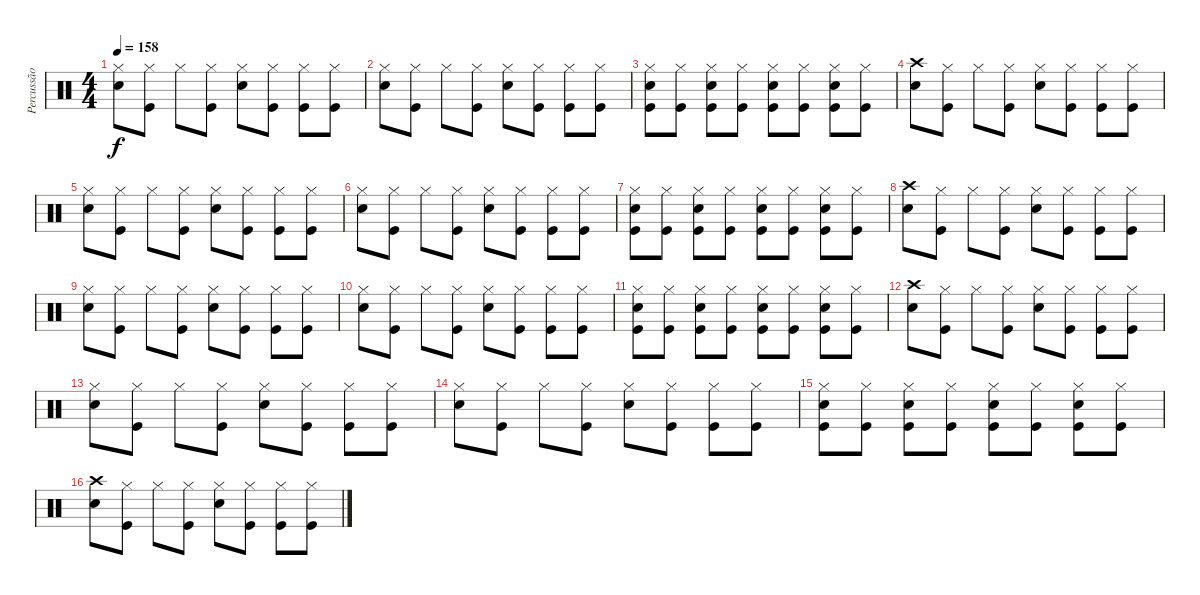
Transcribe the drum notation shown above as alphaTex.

\track ("Percussão" "Percussão") {instrument percussion}
\staff {score}
\articulation defaults
\ts (4 4)
\tempo 158
\clef neutral
\ks c
("Hi-Hat (closed)" "Electric Snare (hit)").8{dy f} ("Hi-Hat (closed)" "Kick (hit)").8 "Hi-Hat (closed)".8 ("Hi-Hat (closed)" "Kick (hit)").8 ("Hi-Hat (closed)" "Electric Snare (hit)").8 ("Hi-Hat (closed)" "Kick (hit)").8 ("Hi-Hat (closed)" "Kick (hit)").8 ("Hi-Hat (closed)" "Kick (hit)").8 |
("Hi-Hat (closed)" "Electric Snare (hit)").8 ("Hi-Hat (closed)" "Kick (hit)").8 "Hi-Hat (closed)".8 ("Hi-Hat (closed)" "Kick (hit)").8 ("Hi-Hat (closed)" "Electric Snare (hit)").8 ("Hi-Hat (closed)" "Kick (hit)").8 ("Hi-Hat (closed)" "Kick (hit)").8 ("Hi-Hat (closed)" "Kick (hit)").8 |
("Hi-Hat (closed)" "Electric Snare (hit)" "Kick (hit)").8 ("Hi-Hat (closed)" "Kick (hit)").8 ("Hi-Hat (closed)" "Electric Snare (hit)" "Kick (hit)").8 ("Hi-Hat (closed)" "Kick (hit)").8 ("Hi-Hat (closed)" "Electric Snare (hit)" "Kick (hit)").8 ("Hi-Hat (closed)" "Kick (hit)").8 ("Hi-Hat (closed)" "Electric Snare (hit)" "Kick (hit)").8 ("Hi-Hat (closed)" "Kick (hit)").8 |
("Crash high (hit)" "Electric Snare (hit)").8 ("Hi-Hat (closed)" "Kick (hit)").8 "Hi-Hat (closed)".8 ("Hi-Hat (closed)" "Kick (hit)").8 ("Hi-Hat (closed)" "Electric Snare (hit)").8 ("Hi-Hat (closed)" "Kick (hit)").8 ("Hi-Hat (closed)" "Kick (hit)").8 ("Hi-Hat (closed)" "Kick (hit)").8 |
("Hi-Hat (closed)" "Electric Snare (hit)").8 ("Hi-Hat (closed)" "Kick (hit)").8 "Hi-Hat (closed)".8 ("Hi-Hat (closed)" "Kick (hit)").8 ("Hi-Hat (closed)" "Electric Snare (hit)").8 ("Hi-Hat (closed)" "Kick (hit)").8 ("Hi-Hat (closed)" "Kick (hit)").8 ("Hi-Hat (closed)" "Kick (hit)").8 |
("Hi-Hat (closed)" "Electric Snare (hit)").8 ("Hi-Hat (closed)" "Kick (hit)").8 "Hi-Hat (closed)".8 ("Hi-Hat (closed)" "Kick (hit)").8 ("Hi-Hat (closed)" "Electric Snare (hit)").8 ("Hi-Hat (closed)" "Kick (hit)").8 ("Hi-Hat (closed)" "Kick (hit)").8 ("Hi-Hat (closed)" "Kick (hit)").8 |
("Hi-Hat (closed)" "Electric Snare (hit)" "Kick (hit)").8 ("Hi-Hat (closed)" "Kick (hit)").8 ("Hi-Hat (closed)" "Electric Snare (hit)" "Kick (hit)").8 ("Hi-Hat (closed)" "Kick (hit)").8 ("Hi-Hat (closed)" "Electric Snare (hit)" "Kick (hit)").8 ("Hi-Hat (closed)" "Kick (hit)").8 ("Hi-Hat (closed)" "Electric Snare (hit)" "Kick (hit)").8 ("Hi-Hat (closed)" "Kick (hit)").8 |
("Crash high (hit)" "Electric Snare (hit)").8 ("Hi-Hat (closed)" "Kick (hit)").8 "Hi-Hat (closed)".8 ("Hi-Hat (closed)" "Kick (hit)").8 ("Hi-Hat (closed)" "Electric Snare (hit)").8 ("Hi-Hat (closed)" "Kick (hit)").8 ("Hi-Hat (closed)" "Kick (hit)").8 ("Hi-Hat (closed)" "Kick (hit)").8 |
("Hi-Hat (closed)" "Electric Snare (hit)").8 ("Hi-Hat (closed)" "Kick (hit)").8 "Hi-Hat (closed)".8 ("Hi-Hat (closed)" "Kick (hit)").8 ("Hi-Hat (closed)" "Electric Snare (hit)").8 ("Hi-Hat (closed)" "Kick (hit)").8 ("Hi-Hat (closed)" "Kick (hit)").8 ("Hi-Hat (closed)" "Kick (hit)").8 |
("Hi-Hat (closed)" "Electric Snare (hit)").8 ("Hi-Hat (closed)" "Kick (hit)").8 "Hi-Hat (closed)".8 ("Hi-Hat (closed)" "Kick (hit)").8 ("Hi-Hat (closed)" "Electric Snare (hit)").8 ("Hi-Hat (closed)" "Kick (hit)").8 ("Hi-Hat (closed)" "Kick (hit)").8 ("Hi-Hat (closed)" "Kick (hit)").8 |
("Hi-Hat (closed)" "Electric Snare (hit)" "Kick (hit)").8 ("Hi-Hat (closed)" "Kick (hit)").8 ("Hi-Hat (closed)" "Electric Snare (hit)" "Kick (hit)").8 ("Hi-Hat (closed)" "Kick (hit)").8 ("Hi-Hat (closed)" "Electric Snare (hit)" "Kick (hit)").8 ("Hi-Hat (closed)" "Kick (hit)").8 ("Hi-Hat (closed)" "Electric Snare (hit)" "Kick (hit)").8 ("Hi-Hat (closed)" "Kick (hit)").8 |
("Crash high (hit)" "Electric Snare (hit)").8 ("Hi-Hat (closed)" "Kick (hit)").8 "Hi-Hat (closed)".8 ("Hi-Hat (closed)" "Kick (hit)").8 ("Hi-Hat (closed)" "Electric Snare (hit)").8 ("Hi-Hat (closed)" "Kick (hit)").8 ("Hi-Hat (closed)" "Kick (hit)").8 ("Hi-Hat (closed)" "Kick (hit)").8 |
("Hi-Hat (closed)" "Electric Snare (hit)").8 ("Hi-Hat (closed)" "Kick (hit)").8 "Hi-Hat (closed)".8 ("Hi-Hat (closed)" "Kick (hit)").8 ("Hi-Hat (closed)" "Electric Snare (hit)").8 ("Hi-Hat (closed)" "Kick (hit)").8 ("Hi-Hat (closed)" "Kick (hit)").8 ("Hi-Hat (closed)" "Kick (hit)").8 |
("Hi-Hat (closed)" "Electric Snare (hit)").8 ("Hi-Hat (closed)" "Kick (hit)").8 "Hi-Hat (closed)".8 ("Hi-Hat (closed)" "Kick (hit)").8 ("Hi-Hat (closed)" "Electric Snare (hit)").8 ("Hi-Hat (closed)" "Kick (hit)").8 ("Hi-Hat (closed)" "Kick (hit)").8 ("Hi-Hat (closed)" "Kick (hit)").8 |
("Hi-Hat (closed)" "Electric Snare (hit)" "Kick (hit)").8 ("Hi-Hat (closed)" "Kick (hit)").8 ("Hi-Hat (closed)" "Electric Snare (hit)" "Kick (hit)").8 ("Hi-Hat (closed)" "Kick (hit)").8 ("Hi-Hat (closed)" "Electric Snare (hit)" "Kick (hit)").8 ("Hi-Hat (closed)" "Kick (hit)").8 ("Hi-Hat (closed)" "Electric Snare (hit)" "Kick (hit)").8 ("Hi-Hat (closed)" "Kick (hit)").8 |
("Crash high (hit)" "Electric Snare (hit)").8 ("Hi-Hat (closed)" "Kick (hit)").8 "Hi-Hat (closed)".8 ("Hi-Hat (closed)" "Kick (hit)").8 ("Hi-Hat (closed)" "Electric Snare (hit)").8 ("Hi-Hat (closed)" "Kick (hit)").8 ("Hi-Hat (closed)" "Kick (hit)").8 ("Hi-Hat (closed)" "Kick (hit)").8
